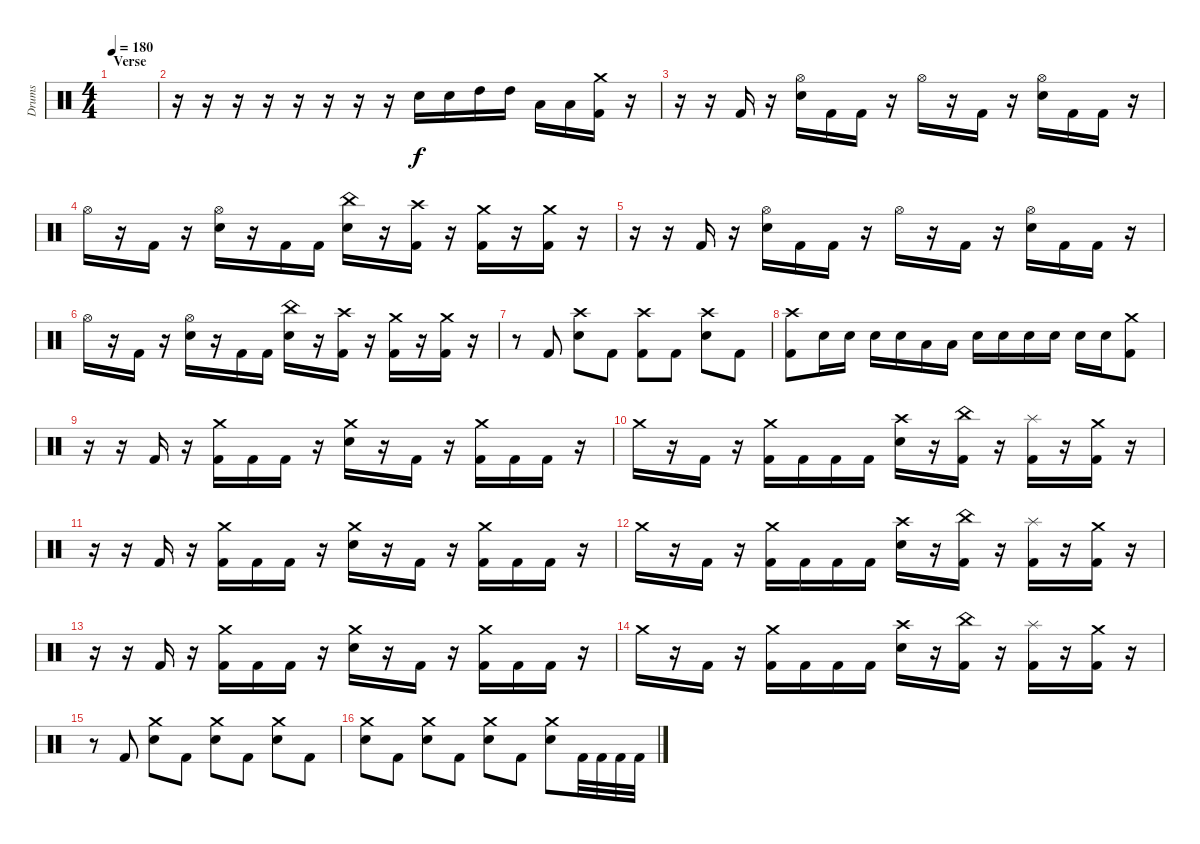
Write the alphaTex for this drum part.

\track ("Drums" "Drums") {instrument percussion}
\staff {score}
\articulation defaults
\ts (4 4)
\section ("" "Verse")
\tempo 180
\clef neutral
\ks c
|
r.16 r.16 r.16 r.16 r.16 r.16 r.16 r.16 "Electric Snare (hit)".16 "Electric Snare (hit)".16 "High Tom (hit)".16 "High Tom (hit)".16 "Low Tom (hit)".16 "Low Tom (hit)".16 ("Crash medium (hit)" "Kick (hit) 2").16 r.16 |
r.16 r.16 "Kick (hit) 2".16 r.16 ("Hi-Hat (open)" "Electric Snare (hit)").16 "Kick (hit) 2".16 "Kick (hit) 2".16 r.16 "Hi-Hat (open)".16 r.16 "Kick (hit) 2".16 r.16 ("Hi-Hat (open)" "Electric Snare (hit)").16 "Kick (hit) 2".16 "Kick (hit) 2".16 r.16 |
"Hi-Hat (open)".16 r.16 "Kick (hit) 2".16 r.16 ("Hi-Hat (open)" "Electric Snare (hit)").16 r.16 "Kick (hit) 2".16 "Kick (hit) 2".16 ("China (hit)" "Electric Snare (hit)").16 r.16 ("Crash high (hit)" "Kick (hit) 2").16 r.16 ("Crash medium (hit)" "Kick (hit) 2").16 r.16 ("Crash medium (hit)" "Kick (hit) 2").16 r.16 |
r.16 r.16 "Kick (hit) 2".16 r.16 ("Hi-Hat (open)" "Electric Snare (hit)").16 "Kick (hit) 2".16 "Kick (hit) 2".16 r.16 "Hi-Hat (open)".16 r.16 "Kick (hit) 2".16 r.16 ("Hi-Hat (open)" "Electric Snare (hit)").16 "Kick (hit) 2".16 "Kick (hit) 2".16 r.16 |
"Hi-Hat (open)".16 r.16 "Kick (hit) 2".16 r.16 ("Hi-Hat (open)" "Electric Snare (hit)").16 r.16 "Kick (hit) 2".16 "Kick (hit) 2".16 ("China (hit)" "Electric Snare (hit)").16 r.16 ("Crash high (hit)" "Kick (hit) 2").16 r.16 ("Crash medium (hit)" "Kick (hit) 2").16 r.16 ("Crash medium (hit)" "Kick (hit) 2").16 r.16 |
r.8 "Kick (hit) 2".8 ("Electric Snare (hit)" "Crash high (hit)").8 "Kick (hit) 2".8 ("Kick (hit) 2" "Crash high (hit)").8 "Kick (hit) 2".8 ("Electric Snare (hit)" "Crash high (hit)").8 "Kick (hit) 2".8 |
("Kick (hit) 2" "Crash high (hit)").8 "Electric Snare (hit)".16 "Electric Snare (hit)".16 "Electric Snare (hit)".16 "Electric Snare (hit)".16 "Low Tom (hit)".16 "Low Tom (hit)".16 "Electric Snare (hit)".16 "Electric Snare (hit)".16 "Electric Snare (hit)".16 "Electric Snare (hit)".16 "Electric Snare (hit)".16 "Electric Snare (hit)".16 ("Crash medium (hit)" "Kick (hit) 2").8 |
r.16 r.16 "Kick (hit) 2".16 r.16 ("Crash medium (hit)" "Kick (hit) 2").16 "Kick (hit) 2".16 "Kick (hit) 2".16 r.16 ("Crash medium (hit)" "Electric Snare (hit)").16 r.16 "Kick (hit) 2".16 r.16 ("Crash medium (hit)" "Kick (hit) 2").16 "Kick (hit) 2".16 "Kick (hit) 2".16 r.16 |
"Crash medium (hit)".16 r.16 "Kick (hit) 2".16 r.16 ("Crash medium (hit)" "Kick (hit) 2").16 "Kick (hit) 2".16 "Kick (hit) 2".16 "Kick (hit) 2".16 ("Crash high (hit)" "Electric Snare (hit)").16 r.16 ("China (hit)" "Kick (hit) 2").16 r.16 ("Splash (hit)" "Kick (hit) 2").16 r.16 ("Crash medium (hit)" "Kick (hit) 2").16 r.16 |
r.16 r.16 "Kick (hit) 2".16 r.16 ("Crash medium (hit)" "Kick (hit) 2").16 "Kick (hit) 2".16 "Kick (hit) 2".16 r.16 ("Crash medium (hit)" "Electric Snare (hit)").16 r.16 "Kick (hit) 2".16 r.16 ("Crash medium (hit)" "Kick (hit) 2").16 "Kick (hit) 2".16 "Kick (hit) 2".16 r.16 |
"Crash medium (hit)".16 r.16 "Kick (hit) 2".16 r.16 ("Crash medium (hit)" "Kick (hit) 2").16 "Kick (hit) 2".16 "Kick (hit) 2".16 "Kick (hit) 2".16 ("Crash high (hit)" "Electric Snare (hit)").16 r.16 ("China (hit)" "Kick (hit) 2").16 r.16 ("Splash (hit)" "Kick (hit) 2").16 r.16 ("Crash medium (hit)" "Kick (hit) 2").16 r.16 |
r.16 r.16 "Kick (hit) 2".16 r.16 ("Crash medium (hit)" "Kick (hit) 2").16 "Kick (hit) 2".16 "Kick (hit) 2".16 r.16 ("Crash medium (hit)" "Electric Snare (hit)").16 r.16 "Kick (hit) 2".16 r.16 ("Crash medium (hit)" "Kick (hit) 2").16 "Kick (hit) 2".16 "Kick (hit) 2".16 r.16 |
"Crash medium (hit)".16 r.16 "Kick (hit) 2".16 r.16 ("Crash medium (hit)" "Kick (hit) 2").16 "Kick (hit) 2".16 "Kick (hit) 2".16 "Kick (hit) 2".16 ("Crash high (hit)" "Electric Snare (hit)").16 r.16 ("China (hit)" "Kick (hit) 2").16 r.16 ("Splash (hit)" "Kick (hit) 2").16 r.16 ("Crash medium (hit)" "Kick (hit) 2").16 r.16 |
r.8 "Kick (hit) 2".8 ("Crash medium (hit)" "Electric Snare (hit)").8 "Kick (hit) 2".8 ("Crash medium (hit)" "Electric Snare (hit)").8 "Kick (hit) 2".8 ("Crash medium (hit)" "Electric Snare (hit)").8 "Kick (hit) 2".8 |
("Crash medium (hit)" "Electric Snare (hit)").8 "Kick (hit) 2".8 ("Crash medium (hit)" "Electric Snare (hit)").8 "Kick (hit) 2".8 ("Crash medium (hit)" "Electric Snare (hit)").8 "Kick (hit) 2".8 ("Crash medium (hit)" "Electric Snare (hit)").8 "Kick (hit) 2".32 "Kick (hit) 2".32 "Kick (hit) 2".32 "Kick (hit) 2".32
